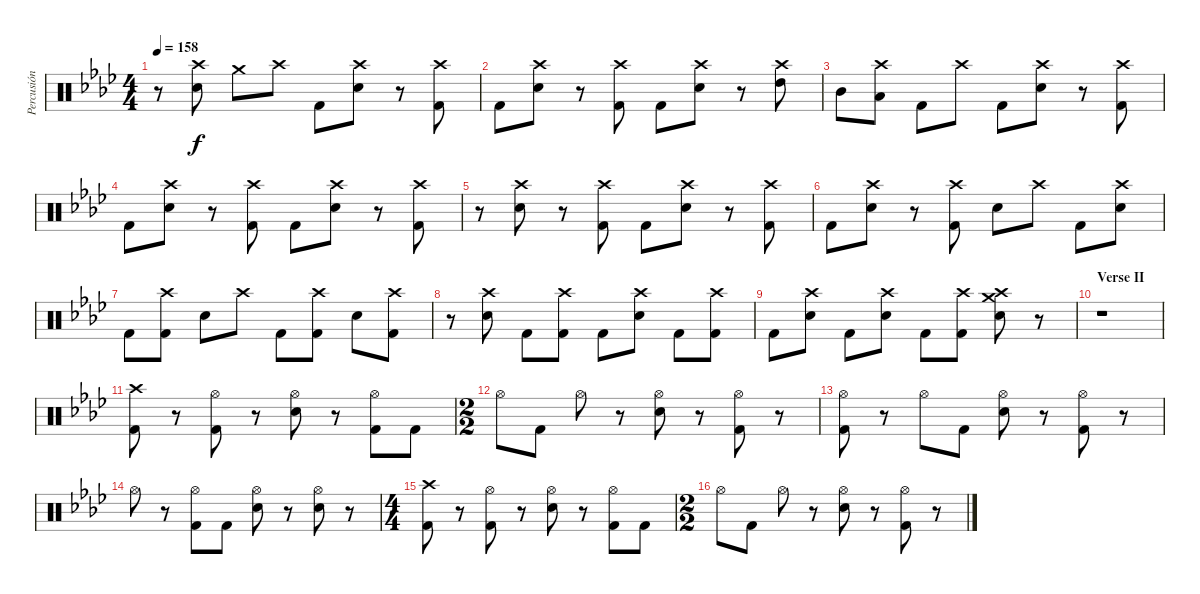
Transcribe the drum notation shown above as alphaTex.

\track ("Percusión" "Percusión") {instrument percussion}
\staff {score}
\articulation defaults
\ts (4 4)
\tempo 158
\clef neutral
\ks ab
r.8{dy f} ("Crash high (hit)" "Snare (hit) 2").8 "Crash medium (hit)".8 "Crash high (hit)".8 "Kick (hit) 2".8 ("Crash high (hit)" "Snare (hit) 2").8 r.8 ("Crash high (hit)" "Kick (hit) 2").8 |
"Kick (hit) 2".8 ("Crash high (hit)" "Snare (hit) 2").8 r.8 ("Crash high (hit)" "Kick (hit) 2").8 "Kick (hit) 2".8 ("Crash high (hit)" "Snare (hit) 2").8 r.8 ("Crash high (hit)" "High Tom (hit)").8 |
"Mid Tom (hit)".8 ("Crash high (hit)" "Low Tom (hit)").8 "Kick (hit) 2".8 "Crash high (hit)".8 "Kick (hit) 2".8 ("Crash high (hit)" "Snare (hit) 2").8 r.8 ("Crash high (hit)" "Kick (hit) 2").8 |
"Kick (hit) 2".8 ("Crash high (hit)" "Snare (hit) 2").8 r.8 ("Crash high (hit)" "Kick (hit) 2").8 "Kick (hit) 2".8 ("Crash high (hit)" "Snare (hit) 2").8 r.8 ("Crash high (hit)" "Kick (hit) 2").8 |
r.8 ("Crash high (hit)" "Snare (hit) 2").8 r.8 ("Crash high (hit)" "Kick (hit) 2").8 "Kick (hit) 2".8 ("Crash high (hit)" "Snare (hit) 2").8 r.8 ("Crash high (hit)" "Kick (hit) 2").8 |
"Kick (hit) 2".8 ("Crash high (hit)" "Snare (hit) 2").8 r.8 ("Crash high (hit)" "Kick (hit) 2").8 "Snare (hit) 2".8 "Crash high (hit)".8 "Kick (hit) 2".8 ("Crash high (hit)" "Snare (hit) 2").8 |
"Kick (hit) 2".8 ("Crash high (hit)" "Kick (hit) 2").8 "Snare (hit) 2".8 "Crash high (hit)".8 "Kick (hit) 2".8 ("Crash high (hit)" "Kick (hit) 2").8 "Snare (hit) 2".8 ("Crash high (hit)" "Kick (hit) 2").8 |
r.8 ("Crash high (hit)" "Snare (hit) 2").8 "Kick (hit) 2".8 ("Crash high (hit)" "Kick (hit) 2").8 "Kick (hit) 2".8 ("Crash high (hit)" "Snare (hit) 2").8 "Kick (hit) 2".8 ("Crash high (hit)" "Kick (hit) 2").8 |
"Kick (hit) 2".8 ("Crash high (hit)" "Snare (hit) 2").8 "Kick (hit) 2".8 ("Crash high (hit)" "Snare (hit) 2").8 "Kick (hit) 2".8 ("Crash high (hit)" "Kick (hit) 2").8 ("Crash medium (hit)" "Snare (hit) 2" "Crash high (hit)").8 r.8 |
\section ("" "Verse II")
r.1 |
("Crash high (hit)" "Kick (hit) 2").8 r.8 ("Hi-Hat (open)" "Kick (hit) 2").8 r.8 ("Hi-Hat (open)" "Snare (hit) 2").8 r.8 ("Hi-Hat (open)" "Kick (hit) 2").8 "Kick (hit) 2".8 |
\ts (2 2)
"Hi-Hat (open)".8 "Kick (hit) 2".8 "Hi-Hat (open)".8 r.8 ("Hi-Hat (open)" "Snare (hit) 2").8 r.8 ("Hi-Hat (open)" "Kick (hit) 2").8 r.8 |
("Hi-Hat (open)" "Kick (hit) 2").8 r.8 "Hi-Hat (open)".8 "Kick (hit) 2".8 ("Hi-Hat (open)" "Snare (hit) 2").8 r.8 ("Hi-Hat (open)" "Kick (hit) 2").8 r.8 |
"Hi-Hat (open)".8 r.8 ("Hi-Hat (open)" "Kick (hit) 2").8 "Kick (hit) 2".8 ("Hi-Hat (open)" "Snare (hit) 2").8 r.8 ("Hi-Hat (open)" "Snare (hit) 2").8 r.8 |
\ts (4 4)
("Crash high (hit)" "Kick (hit) 2").8 r.8 ("Hi-Hat (open)" "Kick (hit) 2").8 r.8 ("Hi-Hat (open)" "Snare (hit) 2").8 r.8 ("Hi-Hat (open)" "Kick (hit) 2").8 "Kick (hit) 2".8 |
\ts (2 2)
"Hi-Hat (open)".8 "Kick (hit) 2".8 "Hi-Hat (open)".8 r.8 ("Hi-Hat (open)" "Snare (hit) 2").8 r.8 ("Hi-Hat (open)" "Kick (hit) 2").8 r.8
